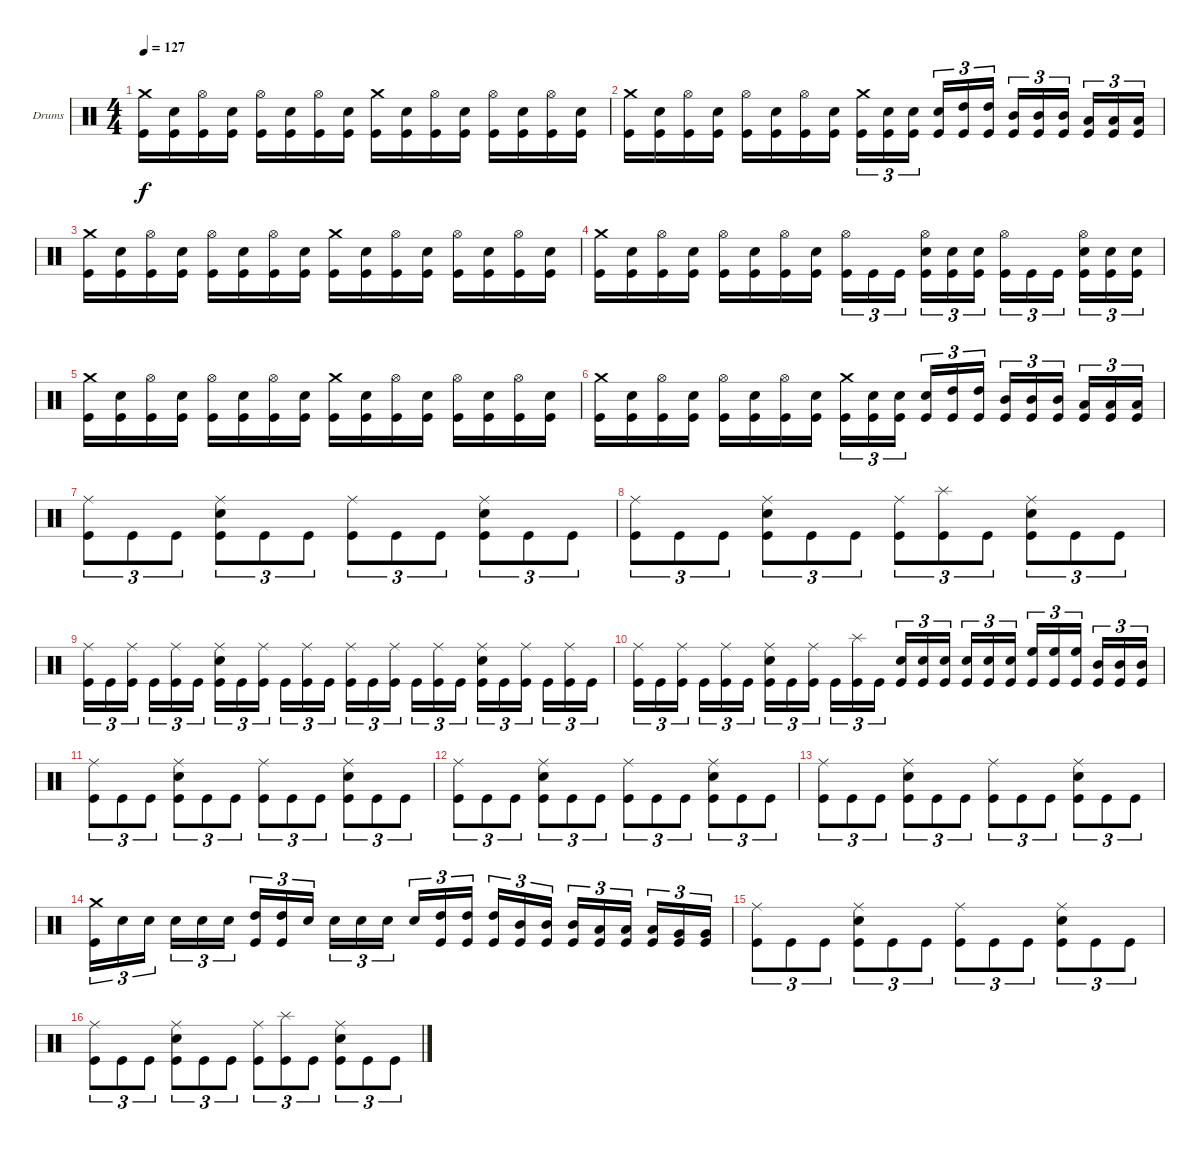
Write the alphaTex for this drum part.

\bracketExtendMode groupsimilarinstruments
\firstSystemTrackNameOrientation horizontal
\otherSystemsTrackNameOrientation horizontal
\track ("Drumkit" "Drums") {instrument percussion}
\staff {score}
\articulation defaults
\ts (4 4)
\tempo 127
\clef neutral
\ks c
("Crash medium (hit)" "Kick (hit)").16{dy f} ("Snare (hit) 2" "Kick (hit)").16 ("Hi-Hat (open)" "Kick (hit)").16 ("Snare (hit) 2" "Kick (hit)").16 ("Hi-Hat (open)" "Kick (hit)").16 ("Snare (hit) 2" "Kick (hit)").16 ("Hi-Hat (open)" "Kick (hit)").16 ("Snare (hit) 2" "Kick (hit)").16 ("Crash medium (hit)" "Kick (hit)").16 ("Snare (hit) 2" "Kick (hit)").16 ("Hi-Hat (open)" "Kick (hit)").16 ("Snare (hit) 2" "Kick (hit)").16 ("Hi-Hat (open)" "Kick (hit)").16 ("Snare (hit) 2" "Kick (hit)").16 ("Hi-Hat (open)" "Kick (hit)").16 ("Snare (hit) 2" "Kick (hit)").16 |
("Crash medium (hit)" "Kick (hit)").16 ("Snare (hit) 2" "Kick (hit)").16 ("Hi-Hat (open)" "Kick (hit)").16 ("Snare (hit) 2" "Kick (hit)").16 ("Hi-Hat (open)" "Kick (hit)").16 ("Snare (hit) 2" "Kick (hit)").16 ("Hi-Hat (open)" "Kick (hit)").16 ("Snare (hit) 2" "Kick (hit)").16 ("Crash medium (hit)" "Kick (hit)").16{tu (3 2)} ("Snare (hit) 2" "Kick (hit)").16{tu (3 2)} ("Snare (hit) 2" "Kick (hit)").16{tu (3 2)} ("Snare (hit) 2" "Kick (hit)").16{tu (3 2)} ("High Tom (hit)" "Kick (hit)").16{tu (3 2)} ("High Tom (hit)" "Kick (hit)").16{tu (3 2)} ("Mid Tom (hit)" "Kick (hit)").16{tu (3 2)} ("Mid Tom (hit)" "Kick (hit)").16{tu (3 2)} ("Mid Tom (hit)" "Kick (hit)").16{tu (3 2)} ("Low Tom (hit)" "Kick (hit)").16{tu (3 2)} ("Low Tom (hit)" "Kick (hit)").16{tu (3 2)} ("Low Tom (hit)" "Kick (hit)").16{tu (3 2)} |
("Crash medium (hit)" "Kick (hit)").16 ("Snare (hit) 2" "Kick (hit)").16 ("Hi-Hat (open)" "Kick (hit)").16 ("Snare (hit) 2" "Kick (hit)").16 ("Hi-Hat (open)" "Kick (hit)").16 ("Snare (hit) 2" "Kick (hit)").16 ("Hi-Hat (open)" "Kick (hit)").16 ("Snare (hit) 2" "Kick (hit)").16 ("Crash medium (hit)" "Kick (hit)").16 ("Snare (hit) 2" "Kick (hit)").16 ("Hi-Hat (open)" "Kick (hit)").16 ("Snare (hit) 2" "Kick (hit)").16 ("Hi-Hat (open)" "Kick (hit)").16 ("Snare (hit) 2" "Kick (hit)").16 ("Hi-Hat (open)" "Kick (hit)").16 ("Snare (hit) 2" "Kick (hit)").16 |
("Crash medium (hit)" "Kick (hit)").16 ("Snare (hit) 2" "Kick (hit)").16 ("Hi-Hat (open)" "Kick (hit)").16 ("Snare (hit) 2" "Kick (hit)").16 ("Hi-Hat (open)" "Kick (hit)").16 ("Snare (hit) 2" "Kick (hit)").16 ("Hi-Hat (open)" "Kick (hit)").16 ("Snare (hit) 2" "Kick (hit)").16 ("Hi-Hat (open)" "Kick (hit)").16{tu (3 2)} "Kick (hit)".16{tu (3 2)} "Kick (hit)".16{tu (3 2)} ("Hi-Hat (open)" "Snare (hit) 2" "Kick (hit)").16{tu (3 2)} ("Snare (hit) 2" "Kick (hit)").16{tu (3 2)} ("Snare (hit) 2" "Kick (hit)").16{tu (3 2)} ("Hi-Hat (open)" "Kick (hit)").16{tu (3 2)} "Kick (hit)".16{tu (3 2)} "Kick (hit)".16{tu (3 2)} ("Hi-Hat (open)" "Snare (hit) 2" "Kick (hit)").16{tu (3 2)} ("Snare (hit) 2" "Kick (hit)").16{tu (3 2)} ("Snare (hit) 2" "Kick (hit)").16{tu (3 2)} |
("Crash medium (hit)" "Kick (hit)").16 ("Snare (hit) 2" "Kick (hit)").16 ("Hi-Hat (open)" "Kick (hit)").16 ("Snare (hit) 2" "Kick (hit)").16 ("Hi-Hat (open)" "Kick (hit)").16 ("Snare (hit) 2" "Kick (hit)").16 ("Hi-Hat (open)" "Kick (hit)").16 ("Snare (hit) 2" "Kick (hit)").16 ("Crash medium (hit)" "Kick (hit)").16 ("Snare (hit) 2" "Kick (hit)").16 ("Hi-Hat (open)" "Kick (hit)").16 ("Snare (hit) 2" "Kick (hit)").16 ("Hi-Hat (open)" "Kick (hit)").16 ("Snare (hit) 2" "Kick (hit)").16 ("Hi-Hat (open)" "Kick (hit)").16 ("Snare (hit) 2" "Kick (hit)").16 |
("Crash medium (hit)" "Kick (hit)").16 ("Snare (hit) 2" "Kick (hit)").16 ("Hi-Hat (open)" "Kick (hit)").16 ("Snare (hit) 2" "Kick (hit)").16 ("Hi-Hat (open)" "Kick (hit)").16 ("Snare (hit) 2" "Kick (hit)").16 ("Hi-Hat (open)" "Kick (hit)").16 ("Snare (hit) 2" "Kick (hit)").16 ("Crash medium (hit)" "Kick (hit)").16{tu (3 2)} ("Snare (hit) 2" "Kick (hit)").16{tu (3 2)} ("Snare (hit) 2" "Kick (hit)").16{tu (3 2)} ("Snare (hit) 2" "Kick (hit)").16{tu (3 2)} ("High Tom (hit)" "Kick (hit)").16{tu (3 2)} ("High Tom (hit)" "Kick (hit)").16{tu (3 2)} ("Mid Tom (hit)" "Kick (hit)").16{tu (3 2)} ("Mid Tom (hit)" "Kick (hit)").16{tu (3 2)} ("Mid Tom (hit)" "Kick (hit)").16{tu (3 2)} ("Low Tom (hit)" "Kick (hit)").16{tu (3 2)} ("Low Tom (hit)" "Kick (hit)").16{tu (3 2)} ("Low Tom (hit)" "Kick (hit)").16{tu (3 2)} |
("Ride (middle)" "Kick (hit)").8{tu (3 2)} "Kick (hit)".8{tu (3 2)} "Kick (hit)".8{tu (3 2)} ("Ride (middle)" "Snare (hit) 2" "Kick (hit)").8{tu (3 2)} "Kick (hit)".8{tu (3 2)} "Kick (hit)".8{tu (3 2)} ("Ride (middle)" "Kick (hit)").8{tu (3 2)} "Kick (hit)".8{tu (3 2)} "Kick (hit)".8{tu (3 2)} ("Ride (middle)" "Snare (hit) 2" "Kick (hit)").8{tu (3 2)} "Kick (hit)".8{tu (3 2)} "Kick (hit)".8{tu (3 2)} |
("Ride (middle)" "Kick (hit)").8{tu (3 2)} "Kick (hit)".8{tu (3 2)} "Kick (hit)".8{tu (3 2)} ("Ride (middle)" "Snare (hit) 2" "Kick (hit)").8{tu (3 2)} "Kick (hit)".8{tu (3 2)} "Kick (hit)".8{tu (3 2)} ("Ride (middle)" "Kick (hit)").8{tu (3 2)} ("Splash (hit)" "Kick (hit)").8{tu (3 2)} "Kick (hit)".8{tu (3 2)} ("Ride (middle)" "Snare (hit) 2" "Kick (hit)").8{tu (3 2)} "Kick (hit)".8{tu (3 2)} "Kick (hit)".8{tu (3 2)} |
("Ride (middle)" "Kick (hit)").16{tu (3 2)} "Kick (hit)".16{tu (3 2)} ("Ride (middle)" "Kick (hit)").16{tu (3 2)} "Kick (hit)".16{tu (3 2)} ("Ride (middle)" "Kick (hit)").16{tu (3 2)} "Kick (hit)".16{tu (3 2)} ("Ride (middle)" "Snare (hit) 2" "Kick (hit)").16{tu (3 2)} "Kick (hit)".16{tu (3 2)} ("Ride (middle)" "Kick (hit)").16{tu (3 2)} "Kick (hit)".16{tu (3 2)} ("Ride (middle)" "Kick (hit)").16{tu (3 2)} "Kick (hit)".16{tu (3 2)} ("Ride (middle)" "Kick (hit)").16{tu (3 2)} "Kick (hit)".16{tu (3 2)} ("Ride (middle)" "Kick (hit)").16{tu (3 2)} "Kick (hit)".16{tu (3 2)} ("Ride (middle)" "Kick (hit)").16{tu (3 2)} "Kick (hit)".16{tu (3 2)} ("Ride (middle)" "Snare (hit) 2" "Kick (hit)").16{tu (3 2)} "Kick (hit)".16{tu (3 2)} ("Ride (middle)" "Kick (hit)").16{tu (3 2)} "Kick (hit)".16{tu (3 2)} ("Ride (middle)" "Kick (hit)").16{tu (3 2)} "Kick (hit)".16{tu (3 2)} |
("Ride (middle)" "Kick (hit)").16{tu (3 2)} "Kick (hit)".16{tu (3 2)} ("Ride (middle)" "Kick (hit)").16{tu (3 2)} "Kick (hit)".16{tu (3 2)} ("Ride (middle)" "Kick (hit)").16{tu (3 2)} "Kick (hit)".16{tu (3 2)} ("Ride (middle)" "Snare (hit) 2" "Kick (hit)").16{tu (3 2)} "Kick (hit)".16{tu (3 2)} ("Ride (middle)" "Kick (hit)").16{tu (3 2)} "Kick (hit)".16{tu (3 2)} ("Splash (hit)" "Kick (hit)").16{tu (3 2)} "Kick (hit)".16{tu (3 2)} ("Snare (hit) 2" "Kick (hit)").16{tu (3 2)} ("Snare (hit) 2" "Kick (hit)").16{tu (3 2)} ("Snare (hit) 2" "Kick (hit)").16{tu (3 2)} ("Snare (hit) 2" "Kick (hit)").16{tu (3 2)} ("Snare (hit) 2" "Kick (hit)").16{tu (3 2)} ("Snare (hit) 2" "Kick (hit)").16{tu (3 2)} ("High Floor Tom (hit)" "Kick (hit)").16{tu (3 2)} ("High Floor Tom (hit)" "Kick (hit)").16{tu (3 2)} ("High Floor Tom (hit)" "Kick (hit)").16{tu (3 2)} ("Mid Tom (hit)" "Kick (hit)").16{tu (3 2)} ("Mid Tom (hit)" "Kick (hit)").16{tu (3 2)} ("Mid Tom (hit)" "Kick (hit)").16{tu (3 2)} |
("Ride (middle)" "Kick (hit)").8{tu (3 2)} "Kick (hit)".8{tu (3 2)} "Kick (hit)".8{tu (3 2)} ("Ride (middle)" "Snare (hit) 2" "Kick (hit)").8{tu (3 2)} "Kick (hit)".8{tu (3 2)} "Kick (hit)".8{tu (3 2)} ("Ride (middle)" "Kick (hit)").8{tu (3 2)} "Kick (hit)".8{tu (3 2)} "Kick (hit)".8{tu (3 2)} ("Ride (middle)" "Snare (hit) 2" "Kick (hit)").8{tu (3 2)} "Kick (hit)".8{tu (3 2)} "Kick (hit)".8{tu (3 2)} |
("Ride (middle)" "Kick (hit)").8{tu (3 2)} "Kick (hit)".8{tu (3 2)} "Kick (hit)".8{tu (3 2)} ("Ride (middle)" "Snare (hit) 2" "Kick (hit)").8{tu (3 2)} "Kick (hit)".8{tu (3 2)} "Kick (hit)".8{tu (3 2)} ("Ride (middle)" "Kick (hit)").8{tu (3 2)} "Kick (hit)".8{tu (3 2)} "Kick (hit)".8{tu (3 2)} ("Ride (middle)" "Snare (hit) 2" "Kick (hit)").8{tu (3 2)} "Kick (hit)".8{tu (3 2)} "Kick (hit)".8{tu (3 2)} |
("Ride (middle)" "Kick (hit)").8{tu (3 2)} "Kick (hit)".8{tu (3 2)} "Kick (hit)".8{tu (3 2)} ("Ride (middle)" "Snare (hit) 2" "Kick (hit)").8{tu (3 2)} "Kick (hit)".8{tu (3 2)} "Kick (hit)".8{tu (3 2)} ("Ride (middle)" "Kick (hit)").8{tu (3 2)} "Kick (hit)".8{tu (3 2)} "Kick (hit)".8{tu (3 2)} ("Ride (middle)" "Snare (hit) 2" "Kick (hit)").8{tu (3 2)} "Kick (hit)".8{tu (3 2)} "Kick (hit)".8{tu (3 2)} |
("Crash medium (hit)" "Kick (hit)").16{tu (3 2)} "Snare (hit) 2".16{tu (3 2)} "Snare (hit) 2".16{tu (3 2)} "Snare (hit) 2".16{tu (3 2)} "Snare (hit) 2".16{tu (3 2)} "Snare (hit) 2".16{tu (3 2)} ("High Tom (hit)" "Kick (hit)").16{tu (3 2)} ("High Tom (hit)" "Kick (hit)").16{tu (3 2)} "Snare (hit) 2".16{tu (3 2)} "Snare (hit) 2".16{tu (3 2)} "Snare (hit) 2".16{tu (3 2)} "Snare (hit) 2".16{tu (3 2)} "Snare (hit) 2".16{tu (3 2)} ("High Tom (hit)" "Kick (hit)").16{tu (3 2)} ("High Tom (hit)" "Kick (hit)").16{tu (3 2)} ("High Tom (hit)" "Kick (hit)").16{tu (3 2)} ("Mid Tom (hit)" "Kick (hit)").16{tu (3 2)} ("Mid Tom (hit)" "Kick (hit)").16{tu (3 2)} ("Mid Tom (hit)" "Kick (hit)").16{tu (3 2)} ("Low Tom (hit)" "Kick (hit)").16{tu (3 2)} ("Low Tom (hit)" "Kick (hit)").16{tu (3 2)} ("Low Tom (hit)" "Kick (hit)").16{tu (3 2)} ("Very Low Tom (hit)" "Kick (hit)").16{tu (3 2)} ("Very Low Tom (hit)" "Kick (hit)").16{tu (3 2)} |
("Ride (middle)" "Kick (hit)").8{tu (3 2)} "Kick (hit)".8{tu (3 2)} "Kick (hit)".8{tu (3 2)} ("Ride (middle)" "Snare (hit) 2" "Kick (hit)").8{tu (3 2)} "Kick (hit)".8{tu (3 2)} "Kick (hit)".8{tu (3 2)} ("Ride (middle)" "Kick (hit)").8{tu (3 2)} "Kick (hit)".8{tu (3 2)} "Kick (hit)".8{tu (3 2)} ("Ride (middle)" "Snare (hit) 2" "Kick (hit)").8{tu (3 2)} "Kick (hit)".8{tu (3 2)} "Kick (hit)".8{tu (3 2)} |
("Ride (middle)" "Kick (hit)").8{tu (3 2)} "Kick (hit)".8{tu (3 2)} "Kick (hit)".8{tu (3 2)} ("Ride (middle)" "Snare (hit) 2" "Kick (hit)").8{tu (3 2)} "Kick (hit)".8{tu (3 2)} "Kick (hit)".8{tu (3 2)} ("Ride (middle)" "Kick (hit)").8{tu (3 2)} ("Splash (hit)" "Kick (hit)").8{tu (3 2)} "Kick (hit)".8{tu (3 2)} ("Ride (middle)" "Snare (hit) 2" "Kick (hit)").8{tu (3 2)} "Kick (hit)".8{tu (3 2)} "Kick (hit)".8{tu (3 2)}
